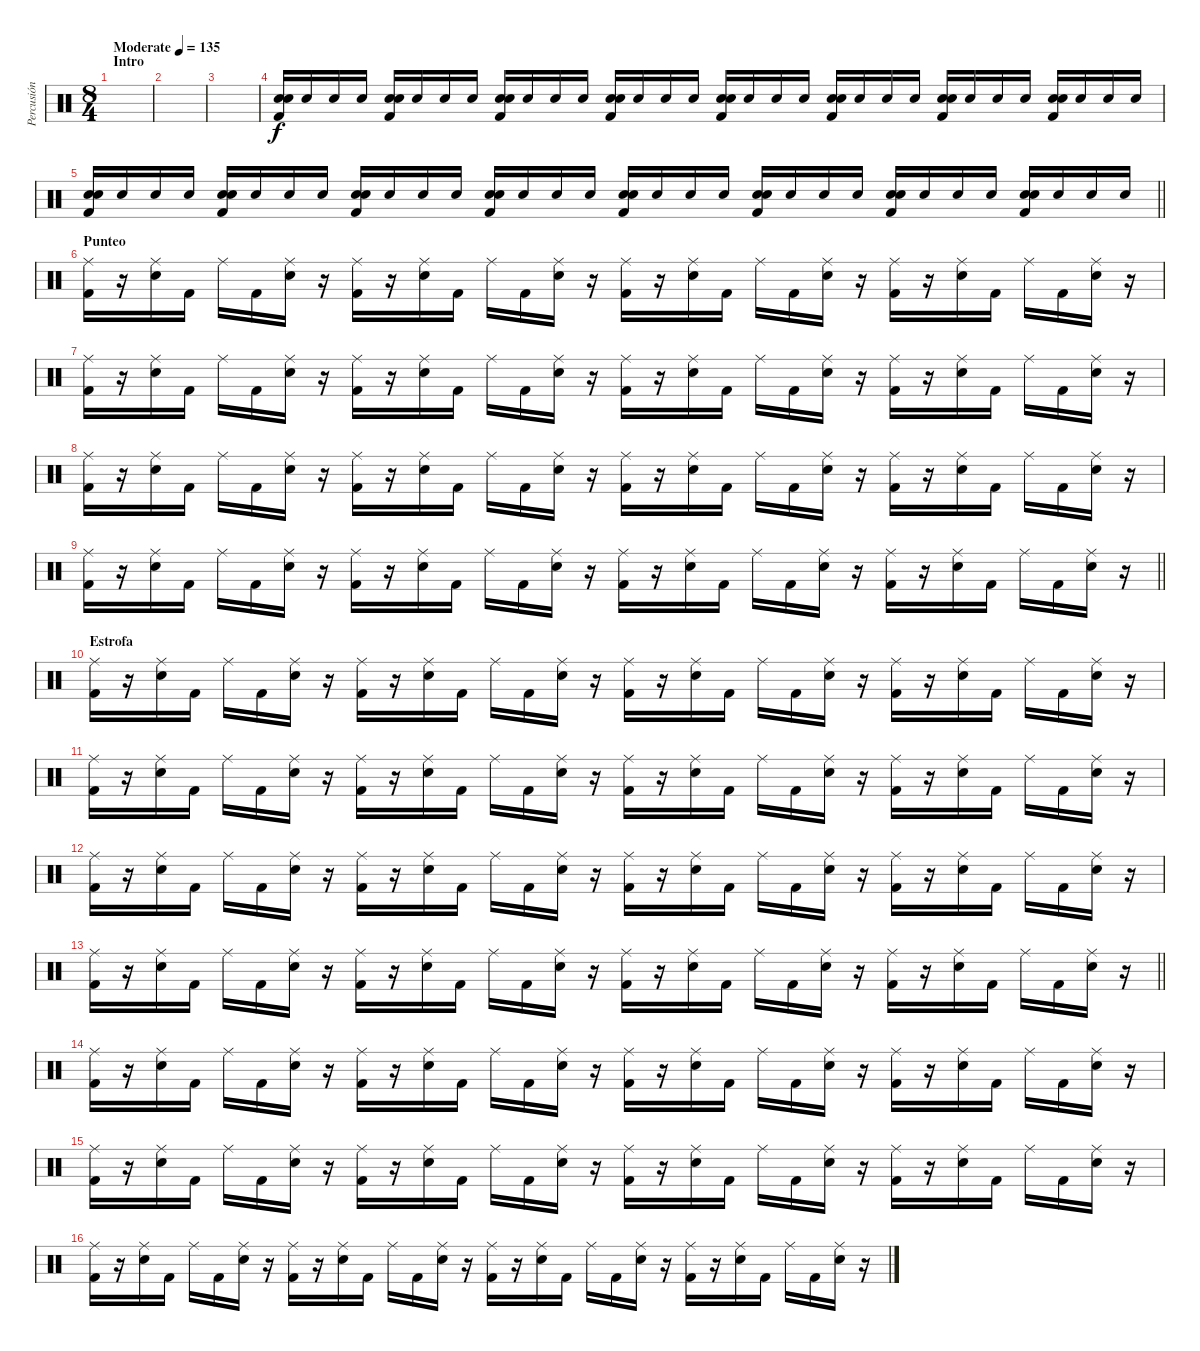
\track ("Percusión" "Percusión") {instrument percussion}
\staff {score}
\articulation defaults
\ts (8 4)
\section ("" "Intro")
\tempo (135 "Moderate")
\clef neutral
\ks c
|
|
|
("Kick (hit) 2" "Snare (hit) 2" "Snare (hit) 2").16 "Snare (hit) 2".16 "Snare (hit) 2".16 "Snare (hit) 2".16 ("Kick (hit) 2" "Snare (hit) 2" "Snare (hit) 2").16 "Snare (hit) 2".16 "Snare (hit) 2".16 "Snare (hit) 2".16 ("Kick (hit) 2" "Snare (hit) 2" "Snare (hit) 2").16 "Snare (hit) 2".16 "Snare (hit) 2".16 "Snare (hit) 2".16 ("Kick (hit) 2" "Snare (hit) 2" "Snare (hit) 2").16 "Snare (hit) 2".16 "Snare (hit) 2".16 "Snare (hit) 2".16 ("Kick (hit) 2" "Snare (hit) 2" "Snare (hit) 2").16 "Snare (hit) 2".16 "Snare (hit) 2".16 "Snare (hit) 2".16 ("Kick (hit) 2" "Snare (hit) 2" "Snare (hit) 2").16 "Snare (hit) 2".16 "Snare (hit) 2".16 "Snare (hit) 2".16 ("Kick (hit) 2" "Snare (hit) 2" "Snare (hit) 2").16 "Snare (hit) 2".16 "Snare (hit) 2".16 "Snare (hit) 2".16 ("Kick (hit) 2" "Snare (hit) 2" "Snare (hit) 2").16 "Snare (hit) 2".16 "Snare (hit) 2".16 "Snare (hit) 2".16 |
\barLineRight lightlight
("Kick (hit) 2" "Snare (hit) 2" "Snare (hit) 2").16 "Snare (hit) 2".16 "Snare (hit) 2".16 "Snare (hit) 2".16 ("Kick (hit) 2" "Snare (hit) 2" "Snare (hit) 2").16 "Snare (hit) 2".16 "Snare (hit) 2".16 "Snare (hit) 2".16 ("Kick (hit) 2" "Snare (hit) 2" "Snare (hit) 2").16 "Snare (hit) 2".16 "Snare (hit) 2".16 "Snare (hit) 2".16 ("Kick (hit) 2" "Snare (hit) 2" "Snare (hit) 2").16 "Snare (hit) 2".16 "Snare (hit) 2".16 "Snare (hit) 2".16 ("Kick (hit) 2" "Snare (hit) 2" "Snare (hit) 2").16 "Snare (hit) 2".16 "Snare (hit) 2".16 "Snare (hit) 2".16 ("Kick (hit) 2" "Snare (hit) 2" "Snare (hit) 2").16 "Snare (hit) 2".16 "Snare (hit) 2".16 "Snare (hit) 2".16 ("Kick (hit) 2" "Snare (hit) 2" "Snare (hit) 2").16 "Snare (hit) 2".16 "Snare (hit) 2".16 "Snare (hit) 2".16 ("Kick (hit) 2" "Snare (hit) 2" "Snare (hit) 2").16 "Snare (hit) 2".16 "Snare (hit) 2".16 "Snare (hit) 2".16 |
\section ("" "Punteo")
("Kick (hit) 2" "Ride (middle)").16 r.16 ("Snare (hit) 2" "Ride (middle)").16 "Kick (hit) 2".16 "Ride (middle)".16 "Kick (hit) 2".16 ("Snare (hit) 2" "Ride (middle)").16 r.16 ("Kick (hit) 2" "Ride (middle)").16 r.16 ("Snare (hit) 2" "Ride (middle)").16 "Kick (hit) 2".16 "Ride (middle)".16 "Kick (hit) 2".16 ("Snare (hit) 2" "Ride (middle)").16 r.16 ("Kick (hit) 2" "Ride (middle)").16 r.16 ("Snare (hit) 2" "Ride (middle)").16 "Kick (hit) 2".16 "Ride (middle)".16 "Kick (hit) 2".16 ("Snare (hit) 2" "Ride (middle)").16 r.16 ("Kick (hit) 2" "Ride (middle)").16 r.16 ("Snare (hit) 2" "Ride (middle)").16 "Kick (hit) 2".16 "Ride (middle)".16 "Kick (hit) 2".16 ("Snare (hit) 2" "Ride (middle)").16 r.16 |
("Kick (hit) 2" "Ride (middle)").16 r.16 ("Snare (hit) 2" "Ride (middle)").16 "Kick (hit) 2".16 "Ride (middle)".16 "Kick (hit) 2".16 ("Snare (hit) 2" "Ride (middle)").16 r.16 ("Kick (hit) 2" "Ride (middle)").16 r.16 ("Snare (hit) 2" "Ride (middle)").16 "Kick (hit) 2".16 "Ride (middle)".16 "Kick (hit) 2".16 ("Snare (hit) 2" "Ride (middle)").16 r.16 ("Kick (hit) 2" "Ride (middle)").16 r.16 ("Snare (hit) 2" "Ride (middle)").16 "Kick (hit) 2".16 "Ride (middle)".16 "Kick (hit) 2".16 ("Snare (hit) 2" "Ride (middle)").16 r.16 ("Kick (hit) 2" "Ride (middle)").16 r.16 ("Snare (hit) 2" "Ride (middle)").16 "Kick (hit) 2".16 "Ride (middle)".16 "Kick (hit) 2".16 ("Snare (hit) 2" "Ride (middle)").16 r.16 |
("Kick (hit) 2" "Ride (middle)").16 r.16 ("Snare (hit) 2" "Ride (middle)").16 "Kick (hit) 2".16 "Ride (middle)".16 "Kick (hit) 2".16 ("Snare (hit) 2" "Ride (middle)").16 r.16 ("Kick (hit) 2" "Ride (middle)").16 r.16 ("Snare (hit) 2" "Ride (middle)").16 "Kick (hit) 2".16 "Ride (middle)".16 "Kick (hit) 2".16 ("Snare (hit) 2" "Ride (middle)").16 r.16 ("Kick (hit) 2" "Ride (middle)").16 r.16 ("Snare (hit) 2" "Ride (middle)").16 "Kick (hit) 2".16 "Ride (middle)".16 "Kick (hit) 2".16 ("Snare (hit) 2" "Ride (middle)").16 r.16 ("Kick (hit) 2" "Ride (middle)").16 r.16 ("Snare (hit) 2" "Ride (middle)").16 "Kick (hit) 2".16 "Ride (middle)".16 "Kick (hit) 2".16 ("Snare (hit) 2" "Ride (middle)").16 r.16 |
\barLineRight lightlight
("Kick (hit) 2" "Ride (middle)").16 r.16 ("Snare (hit) 2" "Ride (middle)").16 "Kick (hit) 2".16 "Ride (middle)".16 "Kick (hit) 2".16 ("Snare (hit) 2" "Ride (middle)").16 r.16 ("Kick (hit) 2" "Ride (middle)").16 r.16 ("Snare (hit) 2" "Ride (middle)").16 "Kick (hit) 2".16 "Ride (middle)".16 "Kick (hit) 2".16 ("Snare (hit) 2" "Ride (middle)").16 r.16 ("Kick (hit) 2" "Ride (middle)").16 r.16 ("Snare (hit) 2" "Ride (middle)").16 "Kick (hit) 2".16 "Ride (middle)".16 "Kick (hit) 2".16 ("Snare (hit) 2" "Ride (middle)").16 r.16 ("Kick (hit) 2" "Ride (middle)").16 r.16 ("Snare (hit) 2" "Ride (middle)").16 "Kick (hit) 2".16 "Ride (middle)".16 "Kick (hit) 2".16 ("Snare (hit) 2" "Ride (middle)").16 r.16 |
\section ("" "Estrofa")
("Kick (hit) 2" "Ride (middle)").16 r.16 ("Snare (hit) 2" "Ride (middle)").16 "Kick (hit) 2".16 "Ride (middle)".16 "Kick (hit) 2".16 ("Snare (hit) 2" "Ride (middle)").16 r.16 ("Kick (hit) 2" "Ride (middle)").16 r.16 ("Snare (hit) 2" "Ride (middle)").16 "Kick (hit) 2".16 "Ride (middle)".16 "Kick (hit) 2".16 ("Snare (hit) 2" "Ride (middle)").16 r.16 ("Kick (hit) 2" "Ride (middle)").16 r.16 ("Snare (hit) 2" "Ride (middle)").16 "Kick (hit) 2".16 "Ride (middle)".16 "Kick (hit) 2".16 ("Snare (hit) 2" "Ride (middle)").16 r.16 ("Kick (hit) 2" "Ride (middle)").16 r.16 ("Snare (hit) 2" "Ride (middle)").16 "Kick (hit) 2".16 "Ride (middle)".16 "Kick (hit) 2".16 ("Snare (hit) 2" "Ride (middle)").16 r.16 |
("Kick (hit) 2" "Ride (middle)").16 r.16 ("Snare (hit) 2" "Ride (middle)").16 "Kick (hit) 2".16 "Ride (middle)".16 "Kick (hit) 2".16 ("Snare (hit) 2" "Ride (middle)").16 r.16 ("Kick (hit) 2" "Ride (middle)").16 r.16 ("Snare (hit) 2" "Ride (middle)").16 "Kick (hit) 2".16 "Ride (middle)".16 "Kick (hit) 2".16 ("Snare (hit) 2" "Ride (middle)").16 r.16 ("Kick (hit) 2" "Ride (middle)").16 r.16 ("Snare (hit) 2" "Ride (middle)").16 "Kick (hit) 2".16 "Ride (middle)".16 "Kick (hit) 2".16 ("Snare (hit) 2" "Ride (middle)").16 r.16 ("Kick (hit) 2" "Ride (middle)").16 r.16 ("Snare (hit) 2" "Ride (middle)").16 "Kick (hit) 2".16 "Ride (middle)".16 "Kick (hit) 2".16 ("Snare (hit) 2" "Ride (middle)").16 r.16 |
("Kick (hit) 2" "Ride (middle)").16 r.16 ("Snare (hit) 2" "Ride (middle)").16 "Kick (hit) 2".16 "Ride (middle)".16 "Kick (hit) 2".16 ("Snare (hit) 2" "Ride (middle)").16 r.16 ("Kick (hit) 2" "Ride (middle)").16 r.16 ("Snare (hit) 2" "Ride (middle)").16 "Kick (hit) 2".16 "Ride (middle)".16 "Kick (hit) 2".16 ("Snare (hit) 2" "Ride (middle)").16 r.16 ("Kick (hit) 2" "Ride (middle)").16 r.16 ("Snare (hit) 2" "Ride (middle)").16 "Kick (hit) 2".16 "Ride (middle)".16 "Kick (hit) 2".16 ("Snare (hit) 2" "Ride (middle)").16 r.16 ("Kick (hit) 2" "Ride (middle)").16 r.16 ("Snare (hit) 2" "Ride (middle)").16 "Kick (hit) 2".16 "Ride (middle)".16 "Kick (hit) 2".16 ("Snare (hit) 2" "Ride (middle)").16 r.16 |
\barLineRight lightlight
("Kick (hit) 2" "Ride (middle)").16 r.16 ("Snare (hit) 2" "Ride (middle)").16 "Kick (hit) 2".16 "Ride (middle)".16 "Kick (hit) 2".16 ("Snare (hit) 2" "Ride (middle)").16 r.16 ("Kick (hit) 2" "Ride (middle)").16 r.16 ("Snare (hit) 2" "Ride (middle)").16 "Kick (hit) 2".16 "Ride (middle)".16 "Kick (hit) 2".16 ("Snare (hit) 2" "Ride (middle)").16 r.16 ("Kick (hit) 2" "Ride (middle)").16 r.16 ("Snare (hit) 2" "Ride (middle)").16 "Kick (hit) 2".16 "Ride (middle)".16 "Kick (hit) 2".16 ("Snare (hit) 2" "Ride (middle)").16 r.16 ("Kick (hit) 2" "Ride (middle)").16 r.16 ("Snare (hit) 2" "Ride (middle)").16 "Kick (hit) 2".16 "Ride (middle)".16 "Kick (hit) 2".16 ("Snare (hit) 2" "Ride (middle)").16 r.16 |
\section ("" "")
("Kick (hit) 2" "Ride (middle)").16 r.16 ("Snare (hit) 2" "Ride (middle)").16 "Kick (hit) 2".16 "Ride (middle)".16 "Kick (hit) 2".16 ("Snare (hit) 2" "Ride (middle)").16 r.16 ("Kick (hit) 2" "Ride (middle)").16 r.16 ("Snare (hit) 2" "Ride (middle)").16 "Kick (hit) 2".16 "Ride (middle)".16 "Kick (hit) 2".16 ("Snare (hit) 2" "Ride (middle)").16 r.16 ("Kick (hit) 2" "Ride (middle)").16 r.16 ("Snare (hit) 2" "Ride (middle)").16 "Kick (hit) 2".16 "Ride (middle)".16 "Kick (hit) 2".16 ("Snare (hit) 2" "Ride (middle)").16 r.16 ("Kick (hit) 2" "Ride (middle)").16 r.16 ("Snare (hit) 2" "Ride (middle)").16 "Kick (hit) 2".16 "Ride (middle)".16 "Kick (hit) 2".16 ("Snare (hit) 2" "Ride (middle)").16 r.16 |
("Kick (hit) 2" "Ride (middle)").16 r.16 ("Snare (hit) 2" "Ride (middle)").16 "Kick (hit) 2".16 "Ride (middle)".16 "Kick (hit) 2".16 ("Snare (hit) 2" "Ride (middle)").16 r.16 ("Kick (hit) 2" "Ride (middle)").16 r.16 ("Snare (hit) 2" "Ride (middle)").16 "Kick (hit) 2".16 "Ride (middle)".16 "Kick (hit) 2".16 ("Snare (hit) 2" "Ride (middle)").16 r.16 ("Kick (hit) 2" "Ride (middle)").16 r.16 ("Snare (hit) 2" "Ride (middle)").16 "Kick (hit) 2".16 "Ride (middle)".16 "Kick (hit) 2".16 ("Snare (hit) 2" "Ride (middle)").16 r.16 ("Kick (hit) 2" "Ride (middle)").16 r.16 ("Snare (hit) 2" "Ride (middle)").16 "Kick (hit) 2".16 "Ride (middle)".16 "Kick (hit) 2".16 ("Snare (hit) 2" "Ride (middle)").16 r.16 |
("Kick (hit) 2" "Ride (middle)").16 r.16 ("Snare (hit) 2" "Ride (middle)").16 "Kick (hit) 2".16 "Ride (middle)".16 "Kick (hit) 2".16 ("Snare (hit) 2" "Ride (middle)").16 r.16 ("Kick (hit) 2" "Ride (middle)").16 r.16 ("Snare (hit) 2" "Ride (middle)").16 "Kick (hit) 2".16 "Ride (middle)".16 "Kick (hit) 2".16 ("Snare (hit) 2" "Ride (middle)").16 r.16 ("Kick (hit) 2" "Ride (middle)").16 r.16 ("Snare (hit) 2" "Ride (middle)").16 "Kick (hit) 2".16 "Ride (middle)".16 "Kick (hit) 2".16 ("Snare (hit) 2" "Ride (middle)").16 r.16 ("Kick (hit) 2" "Ride (middle)").16 r.16 ("Snare (hit) 2" "Ride (middle)").16 "Kick (hit) 2".16 "Ride (middle)".16 "Kick (hit) 2".16 ("Snare (hit) 2" "Ride (middle)").16 r.16
